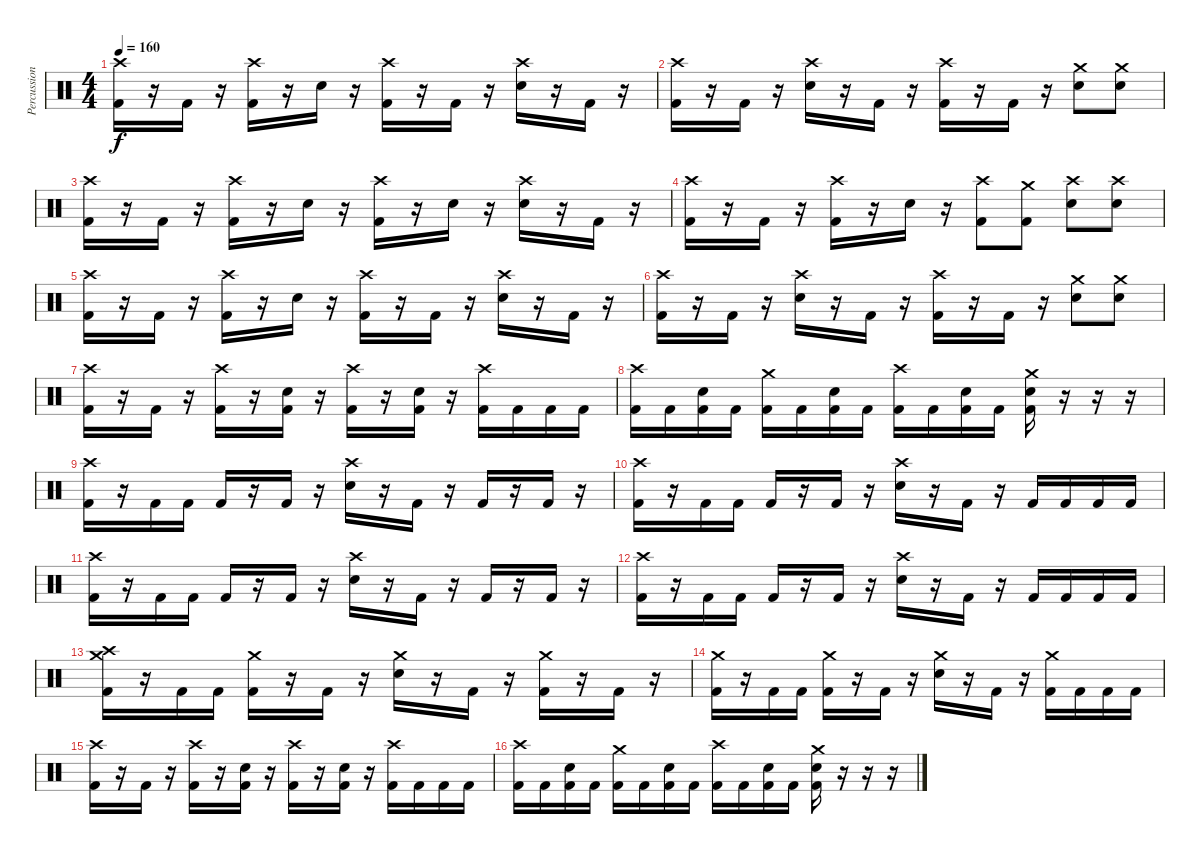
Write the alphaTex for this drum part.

\track ("Percussion" "Percussion") {instrument percussion}
\staff {score}
\articulation defaults
\ts (4 4)
\tempo 160
\clef neutral
\ks c
("Crash high (hit)" "Kick (hit) 2").16{dy f} r.16 "Kick (hit) 2".16 r.16 ("Crash high (hit)" "Kick (hit) 2").16 r.16 "Snare (hit) 2".16 r.16 ("Crash high (hit)" "Kick (hit) 2").16 r.16 "Kick (hit) 2".16 r.16 ("Crash high (hit)" "Snare (hit) 2").16 r.16 "Kick (hit) 2".16 r.16 |
("Crash high (hit)" "Kick (hit) 2").16 r.16 "Kick (hit) 2".16 r.16 ("Crash high (hit)" "Snare (hit) 2").16 r.16 "Kick (hit) 2".16 r.16 ("Crash high (hit)" "Kick (hit) 2").16 r.16 "Kick (hit) 2".16 r.16 ("Crash medium (hit)" "Snare (hit) 2").8 ("Crash medium (hit)" "Snare (hit) 2").8 |
("Crash high (hit)" "Kick (hit) 2").16 r.16 "Kick (hit) 2".16 r.16 ("Crash high (hit)" "Kick (hit) 2").16 r.16 "Snare (hit) 2".16 r.16 ("Crash high (hit)" "Kick (hit) 2").16 r.16 "Snare (hit) 2".16 r.16 ("Crash high (hit)" "Snare (hit) 2").16 r.16 "Kick (hit) 2".16 r.16 |
("Crash high (hit)" "Kick (hit) 2").16 r.16 "Kick (hit) 2".16 r.16 ("Crash high (hit)" "Kick (hit) 2").16 r.16 "Snare (hit) 2".16 r.16 ("Crash high (hit)" "Kick (hit) 2").8 ("Crash medium (hit)" "Kick (hit) 2").8 ("Crash high (hit)" "Snare (hit) 2").8 ("Crash high (hit)" "Snare (hit) 2").8 |
("Crash high (hit)" "Kick (hit) 2").16 r.16 "Kick (hit) 2".16 r.16 ("Crash high (hit)" "Kick (hit) 2").16 r.16 "Snare (hit) 2".16 r.16 ("Crash high (hit)" "Kick (hit) 2").16 r.16 "Kick (hit) 2".16 r.16 ("Crash high (hit)" "Snare (hit) 2").16 r.16 "Kick (hit) 2".16 r.16 |
("Crash high (hit)" "Kick (hit) 2").16 r.16 "Kick (hit) 2".16 r.16 ("Crash high (hit)" "Snare (hit) 2").16 r.16 "Kick (hit) 2".16 r.16 ("Crash high (hit)" "Kick (hit) 2").16 r.16 "Kick (hit) 2".16 r.16 ("Crash medium (hit)" "Snare (hit) 2").8 ("Crash medium (hit)" "Snare (hit) 2").8 |
("Crash high (hit)" "Kick (hit) 2").16 r.16 "Kick (hit) 2".16 r.16 ("Crash high (hit)" "Kick (hit) 2").16 r.16 ("Snare (hit) 2" "Kick (hit) 2").16 r.16 ("Crash high (hit)" "Kick (hit) 2").16 r.16 ("Snare (hit) 2" "Kick (hit) 2").16 r.16 ("Crash high (hit)" "Kick (hit) 2").16 "Kick (hit) 2".16 "Kick (hit) 2".16 "Kick (hit) 2".16 |
("Crash high (hit)" "Kick (hit) 2").16 "Kick (hit) 2".16 ("Snare (hit) 2" "Kick (hit) 2").16 "Kick (hit) 2".16 ("Crash medium (hit)" "Kick (hit) 2").16 "Kick (hit) 2".16 ("Snare (hit) 2" "Kick (hit) 2").16 "Kick (hit) 2".16 ("Crash high (hit)" "Kick (hit) 2").16 "Kick (hit) 2".16 ("Snare (hit) 2" "Kick (hit) 2").16 "Kick (hit) 2".16 ("Crash medium (hit)" "Snare (hit) 2" "Kick (hit) 2").16 r.16 r.16 r.16 |
("Crash high (hit)" "Kick (hit) 2").16 r.16 "Kick (hit) 2".16 "Kick (hit) 2".16 "Kick (hit) 2".16 r.16 "Kick (hit) 2".16 r.16 ("Crash high (hit)" "Snare (hit) 2").16 r.16 "Kick (hit) 2".16 r.16 "Kick (hit) 2".16 r.16 "Kick (hit) 2".16 r.16 |
("Crash high (hit)" "Kick (hit) 2").16 r.16 "Kick (hit) 2".16 "Kick (hit) 2".16 "Kick (hit) 2".16 r.16 "Kick (hit) 2".16 r.16 ("Crash high (hit)" "Snare (hit) 2").16 r.16 "Kick (hit) 2".16 r.16 "Kick (hit) 2".16 "Kick (hit) 2".16 "Kick (hit) 2".16 "Kick (hit) 2".16 |
("Crash high (hit)" "Kick (hit) 2").16 r.16 "Kick (hit) 2".16 "Kick (hit) 2".16 "Kick (hit) 2".16 r.16 "Kick (hit) 2".16 r.16 ("Crash high (hit)" "Snare (hit) 2").16 r.16 "Kick (hit) 2".16 r.16 "Kick (hit) 2".16 r.16 "Kick (hit) 2".16 r.16 |
("Crash high (hit)" "Kick (hit) 2").16 r.16 "Kick (hit) 2".16 "Kick (hit) 2".16 "Kick (hit) 2".16 r.16 "Kick (hit) 2".16 r.16 ("Crash high (hit)" "Snare (hit) 2").16 r.16 "Kick (hit) 2".16 r.16 "Kick (hit) 2".16 "Kick (hit) 2".16 "Kick (hit) 2".16 "Kick (hit) 2".16 |
("Crash high (hit)" "Crash medium (hit)" "Kick (hit) 2").16 r.16 "Kick (hit) 2".16 "Kick (hit) 2".16 ("Crash medium (hit)" "Kick (hit) 2").16 r.16 "Kick (hit) 2".16 r.16 ("Crash medium (hit)" "Snare (hit) 2").16 r.16 "Kick (hit) 2".16 r.16 ("Crash medium (hit)" "Kick (hit) 2").16 r.16 "Kick (hit) 2".16 r.16 |
("Crash medium (hit)" "Kick (hit) 2").16 r.16 "Kick (hit) 2".16 "Kick (hit) 2".16 ("Crash medium (hit)" "Kick (hit) 2").16 r.16 "Kick (hit) 2".16 r.16 ("Crash medium (hit)" "Snare (hit) 2").16 r.16 "Kick (hit) 2".16 r.16 ("Crash medium (hit)" "Kick (hit) 2").16 "Kick (hit) 2".16 "Kick (hit) 2".16 "Kick (hit) 2".16 |
("Crash high (hit)" "Kick (hit) 2").16 r.16 "Kick (hit) 2".16 r.16 ("Crash high (hit)" "Kick (hit) 2").16 r.16 ("Snare (hit) 2" "Kick (hit) 2").16 r.16 ("Crash high (hit)" "Kick (hit) 2").16 r.16 ("Snare (hit) 2" "Kick (hit) 2").16 r.16 ("Crash high (hit)" "Kick (hit) 2").16 "Kick (hit) 2".16 "Kick (hit) 2".16 "Kick (hit) 2".16 |
("Crash high (hit)" "Kick (hit) 2").16 "Kick (hit) 2".16 ("Snare (hit) 2" "Kick (hit) 2").16 "Kick (hit) 2".16 ("Crash medium (hit)" "Kick (hit) 2").16 "Kick (hit) 2".16 ("Snare (hit) 2" "Kick (hit) 2").16 "Kick (hit) 2".16 ("Crash high (hit)" "Kick (hit) 2").16 "Kick (hit) 2".16 ("Snare (hit) 2" "Kick (hit) 2").16 "Kick (hit) 2".16 ("Crash medium (hit)" "Snare (hit) 2" "Kick (hit) 2").16 r.16 r.16 r.16
